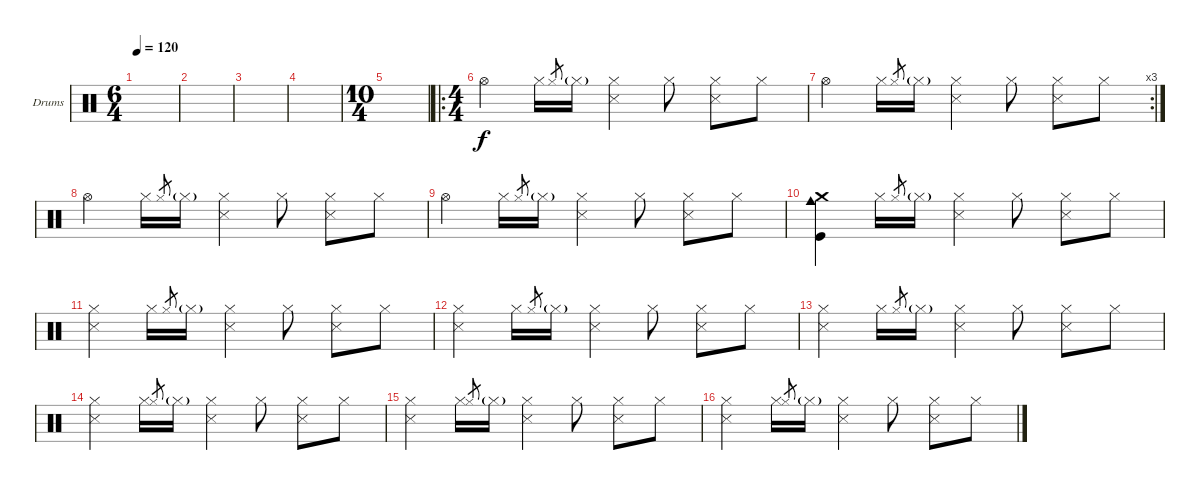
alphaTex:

\defaultSystemsLayout 4
\bracketExtendMode groupsimilarinstruments
\firstSystemTrackNameOrientation horizontal
\otherSystemsTrackNameOrientation horizontal
\track ("Drumkit" "Drums") {instrument percussion}
\staff {score}
\articulation defaults
\ts (6 4)
\tempo 120
\clef neutral
\ks c
|
|
|
|
\ts (10 4)
|
\ro
\ts (4 4)
"Hi-Hat (open)".4 "Hi-Hat (closed)".16 "Hi-Hat (closed)".8{gr} "Hi-Hat (closed)"{g}.16 ("Hi-Hat (closed)" "Snare (side stick) 3").4 "Hi-Hat (closed)".8 ("Hi-Hat (closed)" "Snare (side stick) 3").8 "Hi-Hat (closed)".8 |
\rc 3 "Hi-Hat (open)".4 "Hi-Hat (closed)".16 "Hi-Hat (closed)".8{gr} "Hi-Hat (closed)"{g}.16
("Hi-Hat (closed)" "Snare (side stick) 3").4 "Hi-Hat (closed)".8 ("Hi-Hat (closed)" "Snare (side stick) 3").8 "Hi-Hat (closed)".8 |
"Hi-Hat (open)".4 "Hi-Hat (closed)".16 "Hi-Hat (closed)".8{gr} "Hi-Hat (closed)"{g}.16 ("Hi-Hat (closed)" "Snare (side stick) 3").4 "Hi-Hat (closed)".8 ("Hi-Hat (closed)" "Snare (side stick) 3").8 "Hi-Hat (closed)".8 |
"Hi-Hat (open)".4 "Hi-Hat (closed)".16 "Hi-Hat (closed)".8{gr} "Hi-Hat (closed)"{g}.16 ("Hi-Hat (closed)" "Snare (side stick) 3").4 "Hi-Hat (closed)".8 ("Hi-Hat (closed)" "Snare (side stick) 3").8 "Hi-Hat (closed)".8 |
("Crash medium (hit)" "Kick (hit)" "Cowbell medium (hit)").4 "Hi-Hat (closed)".16 "Hi-Hat (closed)".8{gr} "Hi-Hat (closed)"{g}.16 ("Hi-Hat (closed)" "Snare (side stick) 3").4 "Hi-Hat (closed)".8 ("Hi-Hat (closed)" "Snare (side stick) 3").8 "Hi-Hat (closed)".8 |
("Hi-Hat (closed)" "Snare (side stick) 3").4 "Hi-Hat (closed)".16 "Hi-Hat (closed)".8{gr} "Hi-Hat (closed)"{g}.16 ("Hi-Hat (closed)" "Snare (side stick) 3").4 "Hi-Hat (closed)".8 ("Hi-Hat (closed)" "Snare (side stick) 3").8 "Hi-Hat (closed)".8 |
("Hi-Hat (closed)" "Snare (side stick) 3").4 "Hi-Hat (closed)".16 "Hi-Hat (closed)".8{gr} "Hi-Hat (closed)"{g}.16 ("Hi-Hat (closed)" "Snare (side stick) 3").4 "Hi-Hat (closed)".8 ("Hi-Hat (closed)" "Snare (side stick) 3").8 "Hi-Hat (closed)".8 |
("Hi-Hat (closed)" "Snare (side stick) 3").4 "Hi-Hat (closed)".16 "Hi-Hat (closed)".8{gr} "Hi-Hat (closed)"{g}.16 ("Hi-Hat (closed)" "Snare (side stick) 3").4 "Hi-Hat (closed)".8 ("Hi-Hat (closed)" "Snare (side stick) 3").8 "Hi-Hat (closed)".8 |
("Hi-Hat (closed)" "Snare (side stick) 3").4 "Hi-Hat (closed)".16 "Hi-Hat (closed)".8{gr} "Hi-Hat (closed)"{g}.16 ("Hi-Hat (closed)" "Snare (side stick) 3").4 "Hi-Hat (closed)".8 ("Hi-Hat (closed)" "Snare (side stick) 3").8 "Hi-Hat (closed)".8 |
("Hi-Hat (closed)" "Snare (side stick) 3").4 "Hi-Hat (closed)".16 "Hi-Hat (closed)".8{gr} "Hi-Hat (closed)"{g}.16 ("Hi-Hat (closed)" "Snare (side stick) 3").4 "Hi-Hat (closed)".8 ("Hi-Hat (closed)" "Snare (side stick) 3").8 "Hi-Hat (closed)".8 |
("Hi-Hat (closed)" "Snare (side stick) 3").4 "Hi-Hat (closed)".16 "Hi-Hat (closed)".8{gr} "Hi-Hat (closed)"{g}.16 ("Hi-Hat (closed)" "Snare (side stick) 3").4 "Hi-Hat (closed)".8 ("Hi-Hat (closed)" "Snare (side stick) 3").8 "Hi-Hat (closed)".8
